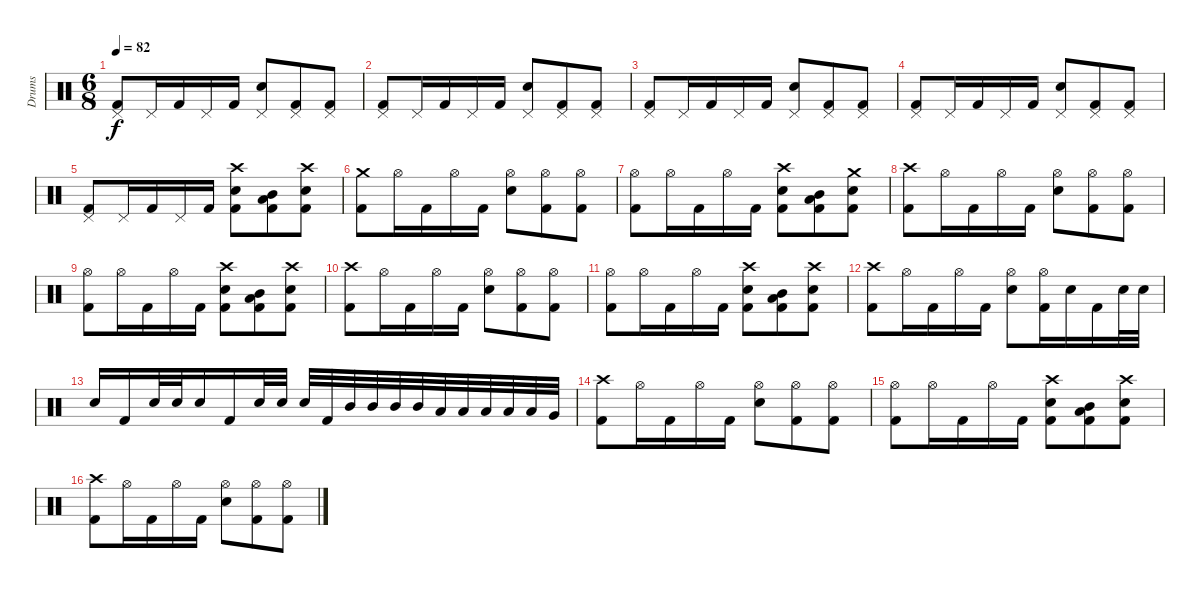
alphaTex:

\track ("Drums" "Drums") {instrument percussion}
\staff {score}
\articulation defaults
\ts (6 8)
\tempo 82
\clef neutral
\ks c
("Pedal Hi-Hat (hit)" "Kick (hit) 2").8{dy f} "Pedal Hi-Hat (hit)".16 "Kick (hit) 2".16 "Pedal Hi-Hat (hit)".16 "Kick (hit) 2".16 ("Pedal Hi-Hat (hit)" "Electric Snare (hit)").8 ("Pedal Hi-Hat (hit)" "Kick (hit) 2").8 ("Pedal Hi-Hat (hit)" "Kick (hit) 2").8 |
("Pedal Hi-Hat (hit)" "Kick (hit) 2").8 "Pedal Hi-Hat (hit)".16 "Kick (hit) 2".16 "Pedal Hi-Hat (hit)".16 "Kick (hit) 2".16 ("Pedal Hi-Hat (hit)" "Electric Snare (hit)").8 ("Pedal Hi-Hat (hit)" "Kick (hit) 2").8 ("Pedal Hi-Hat (hit)" "Kick (hit) 2").8 |
("Pedal Hi-Hat (hit)" "Kick (hit) 2").8 "Pedal Hi-Hat (hit)".16 "Kick (hit) 2".16 "Pedal Hi-Hat (hit)".16 "Kick (hit) 2".16 ("Pedal Hi-Hat (hit)" "Electric Snare (hit)").8 ("Pedal Hi-Hat (hit)" "Kick (hit) 2").8 ("Pedal Hi-Hat (hit)" "Kick (hit) 2").8 |
("Pedal Hi-Hat (hit)" "Kick (hit) 2").8 "Pedal Hi-Hat (hit)".16 "Kick (hit) 2".16 "Pedal Hi-Hat (hit)".16 "Kick (hit) 2".16 ("Pedal Hi-Hat (hit)" "Electric Snare (hit)").8 ("Pedal Hi-Hat (hit)" "Kick (hit) 2").8 ("Pedal Hi-Hat (hit)" "Kick (hit) 2").8 |
("Pedal Hi-Hat (hit)" "Kick (hit) 2").8 "Pedal Hi-Hat (hit)".16 "Kick (hit) 2".16 "Pedal Hi-Hat (hit)".16 "Kick (hit) 2".16 ("Crash high (hit)" "Electric Snare (hit)" "Kick (hit) 2").8 ("Mid Tom (hit)" "Low Tom (hit)" "Kick (hit) 2").8 ("Crash high (hit)" "Electric Snare (hit)" "Kick (hit) 2").8 |
("Crash medium (hit)" "Kick (hit) 2").8 "Hi-Hat (open)".16 "Kick (hit) 2".16 "Hi-Hat (open)".16 "Kick (hit) 2".16 ("Hi-Hat (open)" "Electric Snare (hit)").8 ("Hi-Hat (open)" "Kick (hit) 2").8 ("Hi-Hat (open)" "Kick (hit) 2").8 |
("Hi-Hat (open)" "Kick (hit) 2").8 "Hi-Hat (open)".16 "Kick (hit) 2".16 "Hi-Hat (open)".16 "Kick (hit) 2".16 ("Crash high (hit)" "Electric Snare (hit)" "Kick (hit) 2").8 ("Mid Tom (hit)" "Low Tom (hit)" "Kick (hit) 2").8 ("Crash medium (hit)" "Electric Snare (hit)" "Kick (hit) 2").8 |
("Crash high (hit)" "Kick (hit) 2").8 "Hi-Hat (open)".16 "Kick (hit) 2".16 "Hi-Hat (open)".16 "Kick (hit) 2".16 ("Hi-Hat (open)" "Electric Snare (hit)").8 ("Hi-Hat (open)" "Kick (hit) 2").8 ("Hi-Hat (open)" "Kick (hit) 2").8 |
("Hi-Hat (open)" "Kick (hit) 2").8 "Hi-Hat (open)".16 "Kick (hit) 2".16 "Hi-Hat (open)".16 "Kick (hit) 2".16 ("Crash high (hit)" "Electric Snare (hit)" "Kick (hit) 2").8 ("Mid Tom (hit)" "Low Tom (hit)" "Kick (hit) 2").8 ("Crash high (hit)" "Electric Snare (hit)" "Kick (hit) 2").8 |
("Crash high (hit)" "Kick (hit) 2").8 "Hi-Hat (open)".16 "Kick (hit) 2".16 "Hi-Hat (open)".16 "Kick (hit) 2".16 ("Hi-Hat (open)" "Electric Snare (hit)").8 ("Hi-Hat (open)" "Kick (hit) 2").8 ("Hi-Hat (open)" "Kick (hit) 2").8 |
("Hi-Hat (open)" "Kick (hit) 2").8 "Hi-Hat (open)".16 "Kick (hit) 2".16 "Hi-Hat (open)".16 "Kick (hit) 2".16 ("Crash high (hit)" "Electric Snare (hit)" "Kick (hit) 2").8 ("Mid Tom (hit)" "Low Tom (hit)" "Kick (hit) 2").8 ("Crash high (hit)" "Electric Snare (hit)" "Kick (hit) 2").8 |
("Crash high (hit)" "Kick (hit) 2").8 "Hi-Hat (open)".16 "Kick (hit) 2".16 "Hi-Hat (open)".16 "Kick (hit) 2".16 ("Hi-Hat (open)" "Electric Snare (hit)").8 ("Hi-Hat (open)" "Kick (hit) 2").16 "Electric Snare (hit)".16 "Kick (hit) 2".16 "Electric Snare (hit)".32 "Electric Snare (hit)".32 |
"Electric Snare (hit)".16 "Kick (hit) 2".16 "Electric Snare (hit)".32 "Electric Snare (hit)".32 "Electric Snare (hit)".16 "Kick (hit) 2".16 "Electric Snare (hit)".32 "Electric Snare (hit)".32 "Electric Snare (hit)".32 "Kick (hit) 2".32 "Mid Tom (hit)".32 "Mid Tom (hit)".32 "Mid Tom (hit)".32 "Mid Tom (hit)".32 "Low Tom (hit)".32 "Low Tom (hit)".32 "Low Tom (hit)".32 "Low Tom (hit)".32 "Low Tom (hit)".32 "Very Low Tom (hit)".32 |
("Crash high (hit)" "Kick (hit) 2").8 "Hi-Hat (open)".16 "Kick (hit) 2".16 "Hi-Hat (open)".16 "Kick (hit) 2".16 ("Hi-Hat (open)" "Electric Snare (hit)").8 ("Hi-Hat (open)" "Kick (hit) 2").8 ("Hi-Hat (open)" "Kick (hit) 2").8 |
("Hi-Hat (open)" "Kick (hit) 2").8 "Hi-Hat (open)".16 "Kick (hit) 2".16 "Hi-Hat (open)".16 "Kick (hit) 2".16 ("Crash high (hit)" "Electric Snare (hit)" "Kick (hit) 2").8 ("Mid Tom (hit)" "Low Tom (hit)" "Kick (hit) 2").8 ("Crash high (hit)" "Electric Snare (hit)" "Kick (hit) 2").8 |
("Crash high (hit)" "Kick (hit) 2").8 "Hi-Hat (open)".16 "Kick (hit) 2".16 "Hi-Hat (open)".16 "Kick (hit) 2".16 ("Hi-Hat (open)" "Electric Snare (hit)").8 ("Hi-Hat (open)" "Kick (hit) 2").8 ("Hi-Hat (open)" "Kick (hit) 2").8
